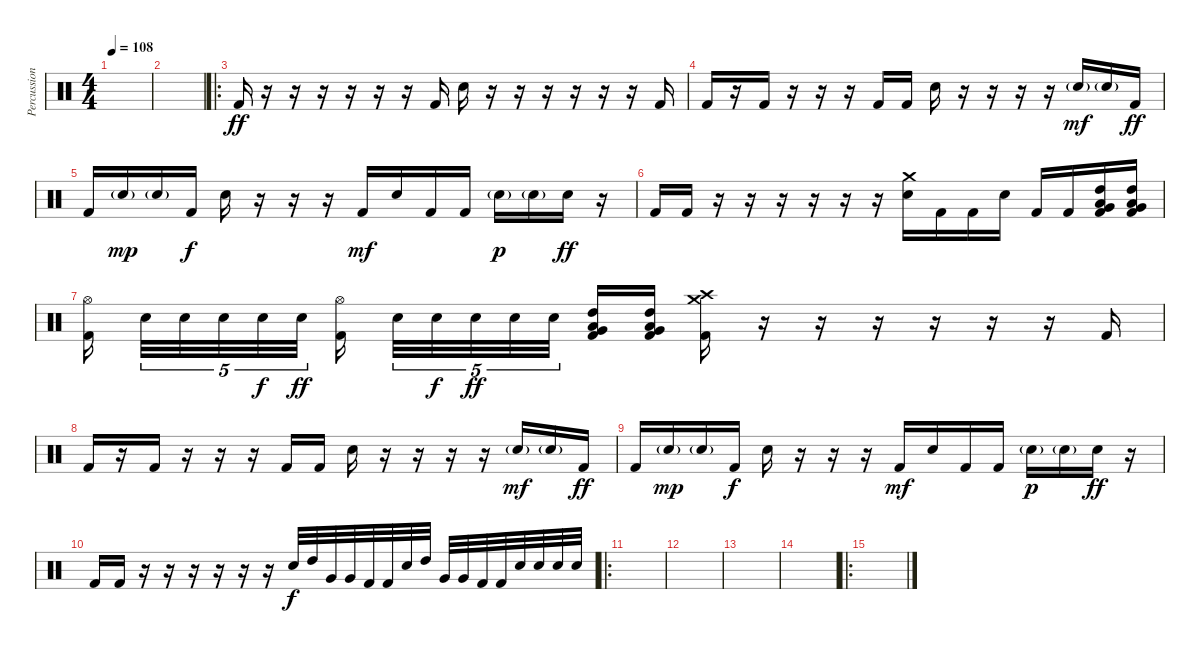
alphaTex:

\track ("Percussion" "Percussion") {instrument percussion}
\staff {score}
\articulation defaults
\ts (4 4)
\tempo 108
\clef neutral
\ks c
|
|
\ro "Kick (hit) 2".16{dy ff}
r.16 r.16 r.16 r.16 r.16 r.16 "Kick (hit) 2".16 "Electric Snare (hit)".16 r.16 r.16 r.16 r.16 r.16 r.16 "Kick (hit) 2".16 |
"Kick (hit) 2".16 r.16 "Kick (hit) 2".16 r.16 r.16 r.16 "Kick (hit) 2".16 "Kick (hit) 2".16 "Electric Snare (hit)".16 r.16 r.16 r.16 r.16 "Electric Snare (hit)"{g}.16{dy mf} "Electric Snare (hit)"{g}.16 "Kick (hit) 2".16{dy ff} |
"Kick (hit) 2".16 "Electric Snare (hit)"{g}.16{dy mp} "Electric Snare (hit)"{g}.16 "Kick (hit) 2".16{dy f} "Electric Snare (hit)".16 r.16 r.16 r.16 "Kick (hit) 2".16{dy mf} "Electric Snare (hit)".16 "Kick (hit) 2".16 "Kick (hit) 2".16 "Electric Snare (hit)"{g}.16{dy p} "Electric Snare (hit)"{g}.16 "Electric Snare (hit)".16{dy ff} r.16 |
"Kick (hit) 2".16 "Kick (hit) 2".16 r.16 r.16 r.16 r.16 r.16 r.16 ("Crash medium (hit)" "Electric Snare (hit)").16 "Kick (hit) 2".16 "Kick (hit) 2".16 "Electric Snare (hit)".16 "Kick (hit) 2".16 "Kick (hit) 2".16 ("High Tom (hit)" "Low Tom (hit)" "Very Low Tom (hit)" "Kick (hit) 2").16 ("High Tom (hit)" "Low Tom (hit)" "Very Low Tom (hit)" "Kick (hit) 2").16 |
("Hi-Hat (open)" "Kick (hit) 2").16{beam splitsecondary} "Electric Snare (hit)".32{tu (5 4)} "Electric Snare (hit)".32{tu (5 4)} "Electric Snare (hit)".32{tu (5 4)} "Electric Snare (hit)".32{tu (5 4) dy f} "Electric Snare (hit)".32{tu (5 4) dy ff beam splitsecondary} ("Hi-Hat (open)" "Kick (hit) 2").16 "Electric Snare (hit)".32{tu (5 4)} "Electric Snare (hit)".32{tu (5 4) dy f} "Electric Snare (hit)".32{tu (5 4) dy ff} "Electric Snare (hit)".32{tu (5 4)} "Electric Snare (hit)".32{tu (5 4) beam splitsecondary} ("High Tom (hit)" "Very Low Tom (hit)" "Low Tom (hit)" "Kick (hit) 2").16 ("High Tom (hit)" "Very Low Tom (hit)" "Low Tom (hit)" "Kick (hit) 2").16 ("Crash medium (hit)" "Crash high (hit)" "Kick (hit) 2").16 r.16 r.16 r.16 r.16 r.16 r.16 "Kick (hit) 2".16 |
"Kick (hit) 2".16 r.16 "Kick (hit) 2".16 r.16 r.16 r.16 "Kick (hit) 2".16 "Kick (hit) 2".16 "Electric Snare (hit)".16 r.16 r.16 r.16 r.16 "Electric Snare (hit)"{g}.16{dy mf} "Electric Snare (hit)"{g}.16 "Kick (hit) 2".16{dy ff} |
"Kick (hit) 2".16 "Electric Snare (hit)"{g}.16{dy mp} "Electric Snare (hit)"{g}.16 "Kick (hit) 2".16{dy f} "Electric Snare (hit)".16 r.16 r.16 r.16 "Kick (hit) 2".16{dy mf} "Electric Snare (hit)".16 "Kick (hit) 2".16 "Kick (hit) 2".16 "Electric Snare (hit)"{g}.16{dy p} "Electric Snare (hit)"{g}.16 "Electric Snare (hit)".16{dy ff} r.16 |
"Kick (hit) 2".16 "Kick (hit) 2".16 r.16 r.16 r.16 r.16 r.16 r.16 "Electric Snare (hit)".32{dy f} "High Tom (hit)".32 "Very Low Tom (hit)".32 "Very Low Tom (hit)".32 "Kick (hit) 2".32 "Kick (hit) 2".32 "Electric Snare (hit)".32 "High Tom (hit)".32 "Very Low Tom (hit)".32 "Very Low Tom (hit)".32 "Kick (hit) 2".32 "Kick (hit) 2".32 "Electric Snare (hit)".32 "Electric Snare (hit)".32 "Electric Snare (hit)".32 "Electric Snare (hit)".32 |
\ro
|
|
|
|
\ro
